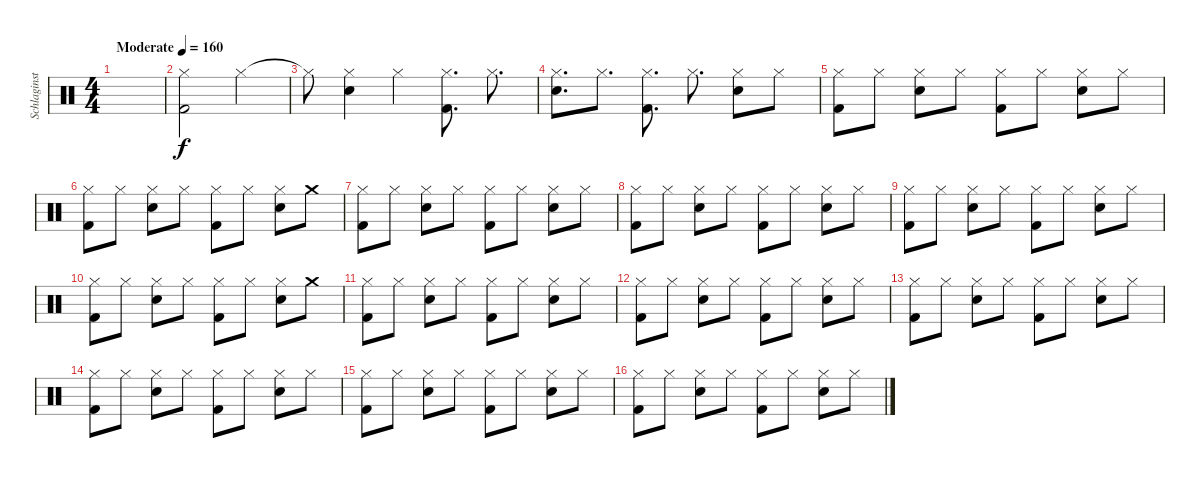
\track ("Schlaginstrumente - Auswahl" "Schlaginst") {instrument percussion}
\staff {score}
\articulation defaults
\ts (4 4)
\tempo (160 "Moderate")
\clef neutral
\ks c
|
("Hi-Hat (closed)" "Kick (hit) 2").2 "Hi-Hat (closed)".4 |
"Hi-Hat (closed)"{t}.8 ("Hi-Hat (closed)" "Snare (hit) 2").4 "Hi-Hat (closed)".4 ("Hi-Hat (closed)" "Kick (hit) 2").8{d} "Hi-Hat (closed)".8{d} |
("Hi-Hat (closed)" "Snare (hit) 2").8{d} "Hi-Hat (closed)".8{d} ("Hi-Hat (closed)" "Kick (hit) 2").8{d} "Hi-Hat (closed)".8{d} ("Hi-Hat (closed)" "Snare (hit) 2").8 "Hi-Hat (closed)".8 |
("Hi-Hat (closed)" "Kick (hit) 2").8 "Hi-Hat (closed)".8 ("Hi-Hat (closed)" "Snare (hit) 2").8 "Hi-Hat (closed)".8 ("Hi-Hat (closed)" "Kick (hit) 2").8 "Hi-Hat (closed)".8 ("Hi-Hat (closed)" "Snare (hit) 2").8 "Hi-Hat (closed)".8 |
("Hi-Hat (closed)" "Kick (hit) 2").8 "Hi-Hat (closed)".8 ("Hi-Hat (closed)" "Snare (hit) 2").8 "Hi-Hat (closed)".8 ("Hi-Hat (closed)" "Kick (hit) 2").8 "Hi-Hat (closed)".8 ("Hi-Hat (closed)" "Snare (hit) 2").8 "Crash medium (hit)".8 |
("Hi-Hat (closed)" "Kick (hit) 2").8 "Hi-Hat (closed)".8 ("Hi-Hat (closed)" "Snare (hit) 2").8 "Hi-Hat (closed)".8 ("Hi-Hat (closed)" "Kick (hit) 2").8 "Hi-Hat (closed)".8 ("Hi-Hat (closed)" "Snare (hit) 2").8 "Hi-Hat (closed)".8 |
("Hi-Hat (closed)" "Kick (hit) 2").8 "Hi-Hat (closed)".8 ("Hi-Hat (closed)" "Snare (hit) 2").8 "Hi-Hat (closed)".8 ("Hi-Hat (closed)" "Kick (hit) 2").8 "Hi-Hat (closed)".8 ("Hi-Hat (closed)" "Snare (hit) 2").8 "Hi-Hat (closed)".8 |
("Hi-Hat (closed)" "Kick (hit) 2").8 "Hi-Hat (closed)".8 ("Hi-Hat (closed)" "Snare (hit) 2").8 "Hi-Hat (closed)".8 ("Hi-Hat (closed)" "Kick (hit) 2").8 "Hi-Hat (closed)".8 ("Hi-Hat (closed)" "Snare (hit) 2").8 "Hi-Hat (closed)".8 |
("Hi-Hat (closed)" "Kick (hit) 2").8 "Hi-Hat (closed)".8 ("Hi-Hat (closed)" "Snare (hit) 2").8 "Hi-Hat (closed)".8 ("Hi-Hat (closed)" "Kick (hit) 2").8 "Hi-Hat (closed)".8 ("Hi-Hat (closed)" "Snare (hit) 2").8 "Crash medium (hit)".8 |
("Hi-Hat (closed)" "Kick (hit) 2").8 "Hi-Hat (closed)".8 ("Hi-Hat (closed)" "Snare (hit) 2").8 "Hi-Hat (closed)".8 ("Hi-Hat (closed)" "Kick (hit) 2").8 "Hi-Hat (closed)".8 ("Hi-Hat (closed)" "Snare (hit) 2").8 "Hi-Hat (closed)".8 |
("Hi-Hat (closed)" "Kick (hit) 2").8 "Hi-Hat (closed)".8 ("Hi-Hat (closed)" "Snare (hit) 2").8 "Hi-Hat (closed)".8 ("Hi-Hat (closed)" "Kick (hit) 2").8 "Hi-Hat (closed)".8 ("Hi-Hat (closed)" "Snare (hit) 2").8 "Hi-Hat (closed)".8 |
("Hi-Hat (closed)" "Kick (hit) 2").8 "Hi-Hat (closed)".8 ("Hi-Hat (closed)" "Snare (hit) 2").8 "Hi-Hat (closed)".8 ("Hi-Hat (closed)" "Kick (hit) 2").8 "Hi-Hat (closed)".8 ("Hi-Hat (closed)" "Snare (hit) 2").8 "Hi-Hat (closed)".8 |
("Hi-Hat (closed)" "Kick (hit) 2").8 "Hi-Hat (closed)".8 ("Hi-Hat (closed)" "Snare (hit) 2").8 "Hi-Hat (closed)".8 ("Hi-Hat (closed)" "Kick (hit) 2").8 "Hi-Hat (closed)".8 ("Hi-Hat (closed)" "Snare (hit) 2").8 "Hi-Hat (closed)".8 |
("Hi-Hat (closed)" "Kick (hit) 2").8 "Hi-Hat (closed)".8 ("Hi-Hat (closed)" "Snare (hit) 2").8 "Hi-Hat (closed)".8 ("Hi-Hat (closed)" "Kick (hit) 2").8 "Hi-Hat (closed)".8 ("Hi-Hat (closed)" "Snare (hit) 2").8 "Hi-Hat (closed)".8 |
("Hi-Hat (closed)" "Kick (hit) 2").8 "Hi-Hat (closed)".8 ("Hi-Hat (closed)" "Snare (hit) 2").8 "Hi-Hat (closed)".8 ("Hi-Hat (closed)" "Kick (hit) 2").8 "Hi-Hat (closed)".8 ("Hi-Hat (closed)" "Snare (hit) 2").8 "Hi-Hat (closed)".8
